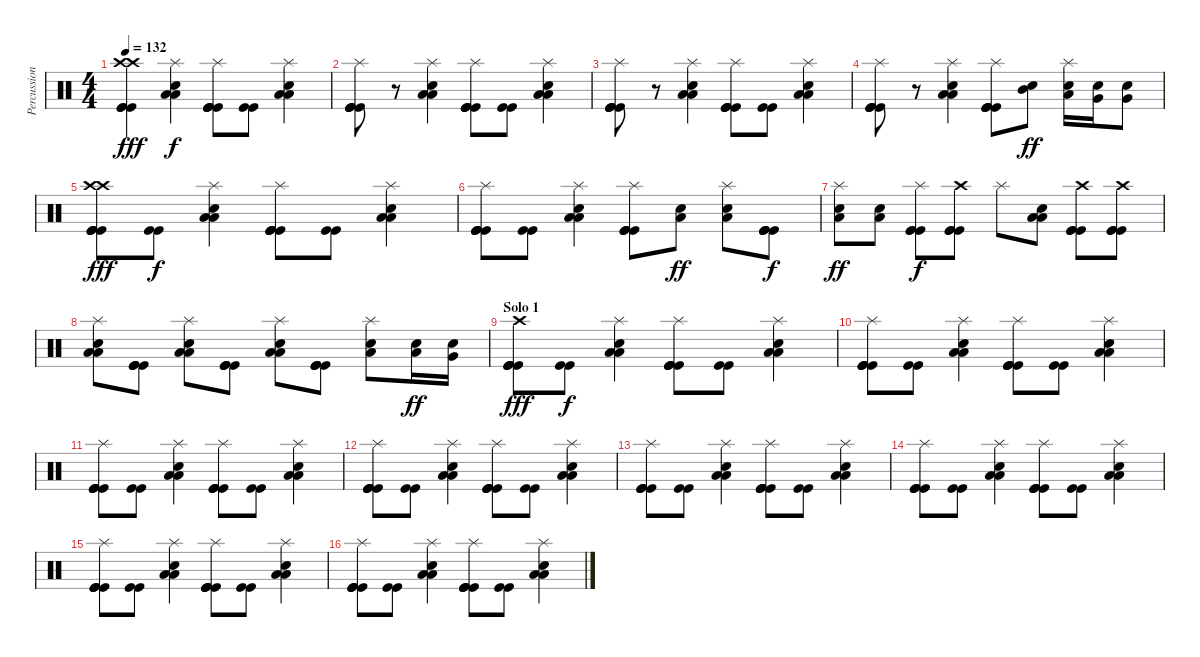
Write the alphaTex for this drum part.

\track ("Percussion" "Percussion") {instrument percussion}
\staff {score}
\articulation defaults
\ts (4 4)
\tempo 132
\clef neutral
\ks c
("Crash high (hit)" "Crash high (hit)" "Kick (hit)" "Kick (hit)" "Kick (hit)").4{dy fff} ("Splash (hit)" "Low Tom (hit)" "Low Tom (hit)" "Electric Snare (hit)").4{dy f} ("Splash (hit)" "Kick (hit)" "Kick (hit)" "Kick (hit)" "Kick (hit)").8 ("Kick (hit)" "Kick (hit)").8 ("Splash (hit)" "Low Tom (hit)" "Low Tom (hit)" "Electric Snare (hit)").4 |
("Splash (hit)" "Kick (hit)" "Kick (hit)" "Kick (hit)" "Kick (hit)").8 r.8 ("Splash (hit)" "Low Tom (hit)" "Low Tom (hit)" "Electric Snare (hit)").4 ("Splash (hit)" "Kick (hit)" "Kick (hit)" "Kick (hit)" "Kick (hit)").8 ("Kick (hit)" "Kick (hit)").8 ("Splash (hit)" "Low Tom (hit)" "Low Tom (hit)" "Electric Snare (hit)").4 |
("Splash (hit)" "Kick (hit)" "Kick (hit)" "Kick (hit)" "Kick (hit)").8 r.8 ("Splash (hit)" "Low Tom (hit)" "Low Tom (hit)" "Electric Snare (hit)").4 ("Splash (hit)" "Kick (hit)" "Kick (hit)" "Kick (hit)" "Kick (hit)").8 ("Kick (hit)" "Kick (hit)").8 ("Splash (hit)" "Low Tom (hit)" "Low Tom (hit)" "Electric Snare (hit)").4 |
("Splash (hit)" "Kick (hit)" "Kick (hit)" "Kick (hit)" "Kick (hit)").8 r.8 ("Splash (hit)" "Low Tom (hit)" "Low Tom (hit)" "Electric Snare (hit)").4 ("Splash (hit)" "Kick (hit)" "Kick (hit)" "Kick (hit)" "Kick (hit)").8 ("Mid Tom (hit)" "Electric Snare (hit)").8{dy ff} ("Splash (hit)" "Low Tom (hit)" "Electric Snare (hit)").16 ("Very Low Tom (hit)" "Electric Snare (hit)").16 ("Very Low Tom (hit)" "Electric Snare (hit)").8 |
("Crash high (hit)" "Crash high (hit)" "Kick (hit)" "Kick (hit)" "Kick (hit)" "Kick (hit)").8{dy fff} ("Kick (hit)" "Kick (hit)").8{dy f} ("Splash (hit)" "Low Tom (hit)" "Low Tom (hit)" "Electric Snare (hit)").4 ("Splash (hit)" "Kick (hit)" "Kick (hit)" "Kick (hit)" "Kick (hit)").8 ("Kick (hit)" "Kick (hit)").8 ("Splash (hit)" "Low Tom (hit)" "Low Tom (hit)" "Electric Snare (hit)").4 |
("Splash (hit)" "Kick (hit)" "Kick (hit)" "Kick (hit)" "Kick (hit)").8 ("Kick (hit)" "Kick (hit)").8 ("Splash (hit)" "Low Tom (hit)" "Low Tom (hit)" "Electric Snare (hit)").4 ("Splash (hit)" "Kick (hit)" "Kick (hit)" "Kick (hit)" "Kick (hit)").8 ("Low Tom (hit)" "Electric Snare (hit)").8{dy ff} ("Splash (hit)" "Low Tom (hit)" "Electric Snare (hit)").8 ("Kick (hit)" "Kick (hit)" "Kick (hit)" "Kick (hit)").8{dy f} |
("Splash (hit)" "Low Tom (hit)" "Electric Snare (hit)").8{dy ff} ("Low Tom (hit)" "Electric Snare (hit)").8 ("Splash (hit)" "Kick (hit)" "Kick (hit)" "Kick (hit)").8{dy f} ("Crash high (hit)" "Kick (hit)" "Kick (hit)" "Kick (hit)").8 "Splash (hit)".8 ("Low Tom (hit)" "Low Tom (hit)" "Electric Snare (hit)").8 ("Crash high (hit)" "Kick (hit)" "Kick (hit)" "Kick (hit)").8 ("Crash high (hit)" "Kick (hit)" "Kick (hit)" "Kick (hit)").8 |
("Splash (hit)" "Low Tom (hit)" "Low Tom (hit)" "Electric Snare (hit)").8 ("Kick (hit)" "Kick (hit)" "Kick (hit)" "Kick (hit)").8 ("Splash (hit)" "Low Tom (hit)" "Low Tom (hit)" "Electric Snare (hit)").8 ("Kick (hit)" "Kick (hit)" "Kick (hit)" "Kick (hit)").8 ("Splash (hit)" "Low Tom (hit)" "Low Tom (hit)" "Electric Snare (hit)").8 ("Kick (hit)" "Kick (hit)" "Kick (hit)" "Kick (hit)").8 ("Splash (hit)" "Low Tom (hit)" "Electric Snare (hit)").8 ("Low Tom (hit)" "Electric Snare (hit)").16{dy ff} ("Very Low Tom (hit)" "Electric Snare (hit)").16 |
\section ("" "Solo 1")
("Crash high (hit)" "Kick (hit)" "Kick (hit)" "Kick (hit)" "Kick (hit)").8{dy fff} ("Kick (hit)" "Kick (hit)").8{dy f} ("Splash (hit)" "Low Tom (hit)" "Low Tom (hit)" "Electric Snare (hit)").4 ("Splash (hit)" "Kick (hit)" "Kick (hit)" "Kick (hit)" "Kick (hit)").8 ("Kick (hit)" "Kick (hit)").8 ("Splash (hit)" "Low Tom (hit)" "Low Tom (hit)" "Electric Snare (hit)").4 |
("Splash (hit)" "Kick (hit)" "Kick (hit)" "Kick (hit)" "Kick (hit)").8 ("Kick (hit)" "Kick (hit)").8 ("Splash (hit)" "Low Tom (hit)" "Low Tom (hit)" "Electric Snare (hit)").4 ("Splash (hit)" "Kick (hit)" "Kick (hit)" "Kick (hit)" "Kick (hit)").8 ("Kick (hit)" "Kick (hit)").8 ("Splash (hit)" "Low Tom (hit)" "Low Tom (hit)" "Electric Snare (hit)").4 |
("Splash (hit)" "Kick (hit)" "Kick (hit)" "Kick (hit)" "Kick (hit)").8 ("Kick (hit)" "Kick (hit)").8 ("Splash (hit)" "Low Tom (hit)" "Low Tom (hit)" "Electric Snare (hit)").4 ("Splash (hit)" "Kick (hit)" "Kick (hit)" "Kick (hit)" "Kick (hit)").8 ("Kick (hit)" "Kick (hit)").8 ("Splash (hit)" "Low Tom (hit)" "Low Tom (hit)" "Electric Snare (hit)").4 |
("Splash (hit)" "Kick (hit)" "Kick (hit)" "Kick (hit)" "Kick (hit)").8 ("Kick (hit)" "Kick (hit)").8 ("Splash (hit)" "Low Tom (hit)" "Low Tom (hit)" "Electric Snare (hit)").4 ("Splash (hit)" "Kick (hit)" "Kick (hit)" "Kick (hit)" "Kick (hit)").8 ("Kick (hit)" "Kick (hit)").8 ("Splash (hit)" "Low Tom (hit)" "Low Tom (hit)" "Electric Snare (hit)").4 |
("Splash (hit)" "Kick (hit)" "Kick (hit)" "Kick (hit)" "Kick (hit)").8 ("Kick (hit)" "Kick (hit)").8 ("Splash (hit)" "Low Tom (hit)" "Low Tom (hit)" "Electric Snare (hit)").4 ("Splash (hit)" "Kick (hit)" "Kick (hit)" "Kick (hit)" "Kick (hit)").8 ("Kick (hit)" "Kick (hit)").8 ("Splash (hit)" "Low Tom (hit)" "Low Tom (hit)" "Electric Snare (hit)").4 |
("Splash (hit)" "Kick (hit)" "Kick (hit)" "Kick (hit)" "Kick (hit)").8 ("Kick (hit)" "Kick (hit)").8 ("Splash (hit)" "Low Tom (hit)" "Low Tom (hit)" "Electric Snare (hit)").4 ("Splash (hit)" "Kick (hit)" "Kick (hit)" "Kick (hit)" "Kick (hit)").8 ("Kick (hit)" "Kick (hit)").8 ("Splash (hit)" "Low Tom (hit)" "Low Tom (hit)" "Electric Snare (hit)").4 |
("Splash (hit)" "Kick (hit)" "Kick (hit)" "Kick (hit)" "Kick (hit)").8 ("Kick (hit)" "Kick (hit)").8 ("Splash (hit)" "Low Tom (hit)" "Low Tom (hit)" "Electric Snare (hit)").4 ("Splash (hit)" "Kick (hit)" "Kick (hit)" "Kick (hit)" "Kick (hit)").8 ("Kick (hit)" "Kick (hit)").8 ("Splash (hit)" "Low Tom (hit)" "Low Tom (hit)" "Electric Snare (hit)").4 |
("Splash (hit)" "Kick (hit)" "Kick (hit)" "Kick (hit)" "Kick (hit)").8 ("Kick (hit)" "Kick (hit)").8 ("Splash (hit)" "Low Tom (hit)" "Low Tom (hit)" "Electric Snare (hit)").4 ("Splash (hit)" "Kick (hit)" "Kick (hit)" "Kick (hit)" "Kick (hit)").8 ("Kick (hit)" "Kick (hit)").8 ("Splash (hit)" "Low Tom (hit)" "Low Tom (hit)" "Electric Snare (hit)").4
